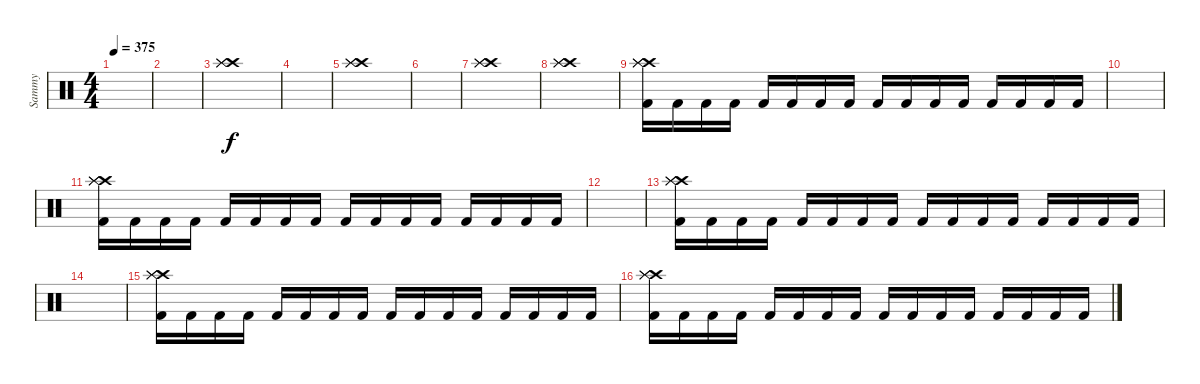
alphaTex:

\track ("Sammy" "Sammy") {instrument percussion}
\staff {score}
\articulation defaults
\ts (4 4)
\tempo 375
\clef neutral
\ks c
|
|
("Crash high (hit)" "Splash (hit)" "Splash (hit)" "Splash (hit)").1 |
|
("Crash high (hit)" "Splash (hit)" "Splash (hit)" "Splash (hit)").1 |
|
("Crash high (hit)" "Splash (hit)" "Splash (hit)" "Splash (hit)").1 |
("Crash high (hit)" "Splash (hit)" "Splash (hit)" "Splash (hit)").1 |
("Crash high (hit)" "Splash (hit)" "Splash (hit)" "Splash (hit)" "Kick (hit) 2").16 "Kick (hit) 2".16 "Kick (hit) 2".16 "Kick (hit) 2".16 "Kick (hit) 2".16 "Kick (hit) 2".16 "Kick (hit) 2".16 "Kick (hit) 2".16 "Kick (hit) 2".16 "Kick (hit) 2".16 "Kick (hit) 2".16 "Kick (hit) 2".16 "Kick (hit) 2".16 "Kick (hit) 2".16 "Kick (hit) 2".16 "Kick (hit) 2".16 |
|
("Crash high (hit)" "Splash (hit)" "Splash (hit)" "Splash (hit)" "Kick (hit) 2").16 "Kick (hit) 2".16 "Kick (hit) 2".16 "Kick (hit) 2".16 "Kick (hit) 2".16 "Kick (hit) 2".16 "Kick (hit) 2".16 "Kick (hit) 2".16 "Kick (hit) 2".16 "Kick (hit) 2".16 "Kick (hit) 2".16 "Kick (hit) 2".16 "Kick (hit) 2".16 "Kick (hit) 2".16 "Kick (hit) 2".16 "Kick (hit) 2".16 |
|
("Crash high (hit)" "Splash (hit)" "Splash (hit)" "Splash (hit)" "Kick (hit) 2").16 "Kick (hit) 2".16 "Kick (hit) 2".16 "Kick (hit) 2".16 "Kick (hit) 2".16 "Kick (hit) 2".16 "Kick (hit) 2".16 "Kick (hit) 2".16 "Kick (hit) 2".16 "Kick (hit) 2".16 "Kick (hit) 2".16 "Kick (hit) 2".16 "Kick (hit) 2".16 "Kick (hit) 2".16 "Kick (hit) 2".16 "Kick (hit) 2".16 |
|
("Crash high (hit)" "Splash (hit)" "Splash (hit)" "Splash (hit)" "Kick (hit) 2").16 "Kick (hit) 2".16 "Kick (hit) 2".16 "Kick (hit) 2".16 "Kick (hit) 2".16 "Kick (hit) 2".16 "Kick (hit) 2".16 "Kick (hit) 2".16 "Kick (hit) 2".16 "Kick (hit) 2".16 "Kick (hit) 2".16 "Kick (hit) 2".16 "Kick (hit) 2".16 "Kick (hit) 2".16 "Kick (hit) 2".16 "Kick (hit) 2".16 |
("Crash high (hit)" "Splash (hit)" "Splash (hit)" "Splash (hit)" "Kick (hit) 2").16 "Kick (hit) 2".16 "Kick (hit) 2".16 "Kick (hit) 2".16 "Kick (hit) 2".16 "Kick (hit) 2".16 "Kick (hit) 2".16 "Kick (hit) 2".16 "Kick (hit) 2".16 "Kick (hit) 2".16 "Kick (hit) 2".16 "Kick (hit) 2".16 "Kick (hit) 2".16 "Kick (hit) 2".16 "Kick (hit) 2".16 "Kick (hit) 2".16
